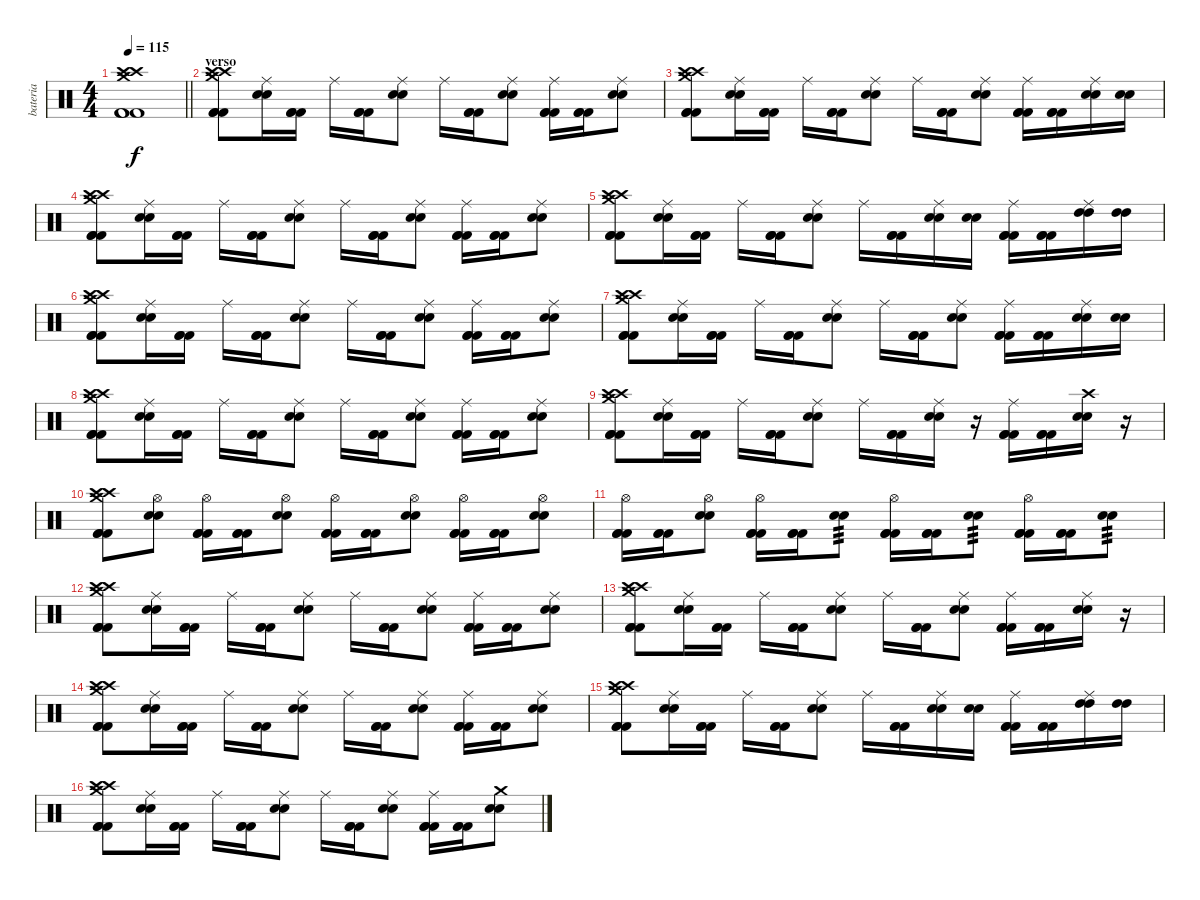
\track ("bateria" "bateria") {instrument percussion}
\staff {score}
\articulation defaults
\ts (4 4)
\tempo 115
\clef neutral
\barLineRight lightlight
\ks c
("Crash high (hit)" "Crash medium (hit)" "Crash high (hit)" "Kick (hit) 2" "Kick (hit) 2" "Kick (hit) 2").1{dy f} |
\section ("" "verso")
("Crash high (hit)" "Crash medium (hit)" "Crash high (hit)" "Kick (hit) 2" "Kick (hit) 2" "Kick (hit) 2").8 ("Ride (middle)" "Electric Snare (hit)" "Electric Snare (hit)").16 ("Kick (hit) 2" "Kick (hit) 2" "Kick (hit) 2").16 "Ride (middle)".16 ("Kick (hit) 2" "Kick (hit) 2" "Kick (hit) 2").16 ("Ride (middle)" "Electric Snare (hit)" "Electric Snare (hit)").8 "Ride (middle)".16 ("Kick (hit) 2" "Kick (hit) 2" "Kick (hit) 2").16 ("Ride (middle)" "Electric Snare (hit)" "Electric Snare (hit)").8 ("Ride (middle)" "Kick (hit) 2" "Kick (hit) 2" "Kick (hit) 2").16 ("Kick (hit) 2" "Kick (hit) 2" "Kick (hit) 2").16 ("Ride (middle)" "Electric Snare (hit)" "Electric Snare (hit)").8 |
("Crash high (hit)" "Crash medium (hit)" "Crash high (hit)" "Kick (hit) 2" "Kick (hit) 2" "Kick (hit) 2").8 ("Ride (middle)" "Electric Snare (hit)" "Electric Snare (hit)").16 ("Kick (hit) 2" "Kick (hit) 2" "Kick (hit) 2").16 "Ride (middle)".16 ("Kick (hit) 2" "Kick (hit) 2" "Kick (hit) 2").16 ("Ride (middle)" "Electric Snare (hit)" "Electric Snare (hit)").8 "Ride (middle)".16 ("Kick (hit) 2" "Kick (hit) 2" "Kick (hit) 2").16 ("Ride (middle)" "Electric Snare (hit)" "Electric Snare (hit)").8 ("Ride (middle)" "Kick (hit) 2" "Kick (hit) 2" "Kick (hit) 2").16 ("Kick (hit) 2" "Kick (hit) 2" "Kick (hit) 2").16 ("Ride (middle)" "Electric Snare (hit)" "Electric Snare (hit)").16 ("Electric Snare (hit)" "Electric Snare (hit)").16 |
("Crash high (hit)" "Crash medium (hit)" "Crash high (hit)" "Kick (hit) 2" "Kick (hit) 2" "Kick (hit) 2").8 ("Ride (middle)" "Electric Snare (hit)" "Electric Snare (hit)").16 ("Kick (hit) 2" "Kick (hit) 2" "Kick (hit) 2").16 "Ride (middle)".16 ("Kick (hit) 2" "Kick (hit) 2" "Kick (hit) 2").16 ("Ride (middle)" "Electric Snare (hit)" "Electric Snare (hit)").8 "Ride (middle)".16 ("Kick (hit) 2" "Kick (hit) 2" "Kick (hit) 2").16 ("Ride (middle)" "Electric Snare (hit)" "Electric Snare (hit)").8 ("Ride (middle)" "Kick (hit) 2" "Kick (hit) 2" "Kick (hit) 2").16 ("Kick (hit) 2" "Kick (hit) 2" "Kick (hit) 2").16 ("Ride (middle)" "Electric Snare (hit)" "Electric Snare (hit)").8 |
("Crash high (hit)" "Crash medium (hit)" "Crash high (hit)" "Kick (hit) 2" "Kick (hit) 2" "Kick (hit) 2").8 ("Ride (middle)" "Electric Snare (hit)" "Electric Snare (hit)").16 ("Kick (hit) 2" "Kick (hit) 2" "Kick (hit) 2").16 "Ride (middle)".16 ("Kick (hit) 2" "Kick (hit) 2" "Kick (hit) 2").16 ("Ride (middle)" "Electric Snare (hit)" "Electric Snare (hit)").8 "Ride (middle)".16 ("Kick (hit) 2" "Kick (hit) 2" "Kick (hit) 2").16 ("Ride (middle)" "Electric Snare (hit)" "Electric Snare (hit)").16 ("Electric Snare (hit)" "Electric Snare (hit)").16 ("Ride (middle)" "Kick (hit) 2" "Kick (hit) 2" "Kick (hit) 2").16 ("Kick (hit) 2" "Kick (hit) 2" "Kick (hit) 2").16 ("Ride (middle)" "High Tom (hit)" "High Tom (hit)").16 ("High Tom (hit)" "High Tom (hit)").16 |
("Crash high (hit)" "Crash medium (hit)" "Crash high (hit)" "Kick (hit) 2" "Kick (hit) 2" "Kick (hit) 2").8 ("Ride (middle)" "Electric Snare (hit)" "Electric Snare (hit)").16 ("Kick (hit) 2" "Kick (hit) 2" "Kick (hit) 2").16 "Ride (middle)".16 ("Kick (hit) 2" "Kick (hit) 2" "Kick (hit) 2").16 ("Ride (middle)" "Electric Snare (hit)" "Electric Snare (hit)").8 "Ride (middle)".16 ("Kick (hit) 2" "Kick (hit) 2" "Kick (hit) 2").16 ("Ride (middle)" "Electric Snare (hit)" "Electric Snare (hit)").8 ("Ride (middle)" "Kick (hit) 2" "Kick (hit) 2" "Kick (hit) 2").16 ("Kick (hit) 2" "Kick (hit) 2" "Kick (hit) 2").16 ("Ride (middle)" "Electric Snare (hit)" "Electric Snare (hit)").8 |
("Crash high (hit)" "Crash medium (hit)" "Crash high (hit)" "Kick (hit) 2" "Kick (hit) 2" "Kick (hit) 2").8 ("Ride (middle)" "Electric Snare (hit)" "Electric Snare (hit)").16 ("Kick (hit) 2" "Kick (hit) 2" "Kick (hit) 2").16 "Ride (middle)".16 ("Kick (hit) 2" "Kick (hit) 2" "Kick (hit) 2").16 ("Ride (middle)" "Electric Snare (hit)" "Electric Snare (hit)").8 "Ride (middle)".16 ("Kick (hit) 2" "Kick (hit) 2" "Kick (hit) 2").16 ("Ride (middle)" "Electric Snare (hit)" "Electric Snare (hit)").8 ("Ride (middle)" "Kick (hit) 2" "Kick (hit) 2" "Kick (hit) 2").16 ("Kick (hit) 2" "Kick (hit) 2" "Kick (hit) 2").16 ("Ride (middle)" "Electric Snare (hit)" "Electric Snare (hit)").16 ("Electric Snare (hit)" "Electric Snare (hit)").16 |
("Crash high (hit)" "Crash medium (hit)" "Crash high (hit)" "Kick (hit) 2" "Kick (hit) 2" "Kick (hit) 2").8 ("Ride (middle)" "Electric Snare (hit)" "Electric Snare (hit)").16 ("Kick (hit) 2" "Kick (hit) 2" "Kick (hit) 2").16 "Ride (middle)".16 ("Kick (hit) 2" "Kick (hit) 2" "Kick (hit) 2").16 ("Ride (middle)" "Electric Snare (hit)" "Electric Snare (hit)").8 "Ride (middle)".16 ("Kick (hit) 2" "Kick (hit) 2" "Kick (hit) 2").16 ("Ride (middle)" "Electric Snare (hit)" "Electric Snare (hit)").8 ("Ride (middle)" "Kick (hit) 2" "Kick (hit) 2" "Kick (hit) 2").16 ("Kick (hit) 2" "Kick (hit) 2" "Kick (hit) 2").16 ("Ride (middle)" "Electric Snare (hit)" "Electric Snare (hit)").8 |
("Crash high (hit)" "Crash medium (hit)" "Crash high (hit)" "Kick (hit) 2" "Kick (hit) 2" "Kick (hit) 2").8 ("Ride (middle)" "Electric Snare (hit)" "Electric Snare (hit)").16 ("Kick (hit) 2" "Kick (hit) 2" "Kick (hit) 2").16 "Ride (middle)".16 ("Kick (hit) 2" "Kick (hit) 2" "Kick (hit) 2").16 ("Ride (middle)" "Electric Snare (hit)" "Electric Snare (hit)").8 "Ride (middle)".16 ("Kick (hit) 2" "Kick (hit) 2" "Kick (hit) 2").16 ("Ride (middle)" "Electric Snare (hit)" "Electric Snare (hit)").16 r.16 ("Ride (middle)" "Kick (hit) 2" "Kick (hit) 2" "Kick (hit) 2").16 ("Kick (hit) 2" "Kick (hit) 2" "Kick (hit) 2").16 ("Crash high (hit)" "Electric Snare (hit)" "Electric Snare (hit)").16 r.16 |
("Crash high (hit)" "Crash medium (hit)" "Crash high (hit)" "Kick (hit) 2" "Kick (hit) 2" "Kick (hit) 2").8 ("Hi-Hat (open)" "Electric Snare (hit)" "Electric Snare (hit)").8 ("Hi-Hat (open)" "Kick (hit) 2" "Kick (hit) 2" "Kick (hit) 2").16 ("Kick (hit) 2" "Kick (hit) 2" "Kick (hit) 2").16 ("Hi-Hat (open)" "Electric Snare (hit)" "Electric Snare (hit)").8 ("Hi-Hat (open)" "Kick (hit) 2" "Kick (hit) 2" "Kick (hit) 2").16 ("Kick (hit) 2" "Kick (hit) 2" "Kick (hit) 2").16 ("Hi-Hat (open)" "Electric Snare (hit)" "Electric Snare (hit)").8 ("Hi-Hat (open)" "Kick (hit) 2" "Kick (hit) 2" "Kick (hit) 2").16 ("Kick (hit) 2" "Kick (hit) 2" "Kick (hit) 2").16 ("Hi-Hat (open)" "Electric Snare (hit)" "Electric Snare (hit)").8 |
("Hi-Hat (open)" "Kick (hit) 2" "Kick (hit) 2" "Kick (hit) 2").16 ("Kick (hit) 2" "Kick (hit) 2" "Kick (hit) 2").16 ("Hi-Hat (open)" "Electric Snare (hit)" "Electric Snare (hit)").8 ("Hi-Hat (open)" "Kick (hit) 2" "Kick (hit) 2" "Kick (hit) 2").16 ("Kick (hit) 2" "Kick (hit) 2" "Kick (hit) 2").16 ("Electric Snare (hit)" "Electric Snare (hit)").8{tp 3} ("Hi-Hat (open)" "Kick (hit) 2" "Kick (hit) 2" "Kick (hit) 2").16 ("Kick (hit) 2" "Kick (hit) 2" "Kick (hit) 2").16 ("Electric Snare (hit)" "Electric Snare (hit)").8{tp 3} ("Hi-Hat (open)" "Kick (hit) 2" "Kick (hit) 2" "Kick (hit) 2").16 ("Kick (hit) 2" "Kick (hit) 2" "Kick (hit) 2").16 ("Electric Snare (hit)" "Electric Snare (hit)").8{tp 3} |
("Crash high (hit)" "Crash medium (hit)" "Crash high (hit)" "Kick (hit) 2" "Kick (hit) 2" "Kick (hit) 2").8 ("Ride (middle)" "Electric Snare (hit)" "Electric Snare (hit)").16 ("Kick (hit) 2" "Kick (hit) 2" "Kick (hit) 2").16 "Ride (middle)".16 ("Kick (hit) 2" "Kick (hit) 2" "Kick (hit) 2").16 ("Ride (middle)" "Electric Snare (hit)" "Electric Snare (hit)").8 "Ride (middle)".16 ("Kick (hit) 2" "Kick (hit) 2" "Kick (hit) 2").16 ("Ride (middle)" "Electric Snare (hit)" "Electric Snare (hit)").8 ("Ride (middle)" "Kick (hit) 2" "Kick (hit) 2" "Kick (hit) 2").16 ("Kick (hit) 2" "Kick (hit) 2" "Kick (hit) 2").16 ("Ride (middle)" "Electric Snare (hit)" "Electric Snare (hit)").8 |
("Crash high (hit)" "Crash medium (hit)" "Crash high (hit)" "Kick (hit) 2" "Kick (hit) 2" "Kick (hit) 2").8 ("Ride (middle)" "Electric Snare (hit)" "Electric Snare (hit)").16 ("Kick (hit) 2" "Kick (hit) 2" "Kick (hit) 2").16 "Ride (middle)".16 ("Kick (hit) 2" "Kick (hit) 2" "Kick (hit) 2").16 ("Ride (middle)" "Electric Snare (hit)" "Electric Snare (hit)").8 "Ride (middle)".16 ("Kick (hit) 2" "Kick (hit) 2" "Kick (hit) 2").16 ("Ride (middle)" "Electric Snare (hit)" "Electric Snare (hit)").8 ("Ride (middle)" "Kick (hit) 2" "Kick (hit) 2" "Kick (hit) 2").16 ("Kick (hit) 2" "Kick (hit) 2" "Kick (hit) 2").16 ("Ride (middle)" "Electric Snare (hit)" "Electric Snare (hit)").16 r.16 |
("Crash high (hit)" "Crash medium (hit)" "Crash high (hit)" "Kick (hit) 2" "Kick (hit) 2" "Kick (hit) 2").8 ("Ride (middle)" "Electric Snare (hit)" "Electric Snare (hit)").16 ("Kick (hit) 2" "Kick (hit) 2" "Kick (hit) 2").16 "Ride (middle)".16 ("Kick (hit) 2" "Kick (hit) 2" "Kick (hit) 2").16 ("Ride (middle)" "Electric Snare (hit)" "Electric Snare (hit)").8 "Ride (middle)".16 ("Kick (hit) 2" "Kick (hit) 2" "Kick (hit) 2").16 ("Ride (middle)" "Electric Snare (hit)" "Electric Snare (hit)").8 ("Ride (middle)" "Kick (hit) 2" "Kick (hit) 2" "Kick (hit) 2").16 ("Kick (hit) 2" "Kick (hit) 2" "Kick (hit) 2").16 ("Ride (middle)" "Electric Snare (hit)" "Electric Snare (hit)").8 |
("Crash high (hit)" "Crash medium (hit)" "Crash high (hit)" "Kick (hit) 2" "Kick (hit) 2" "Kick (hit) 2").8 ("Ride (middle)" "Electric Snare (hit)" "Electric Snare (hit)").16 ("Kick (hit) 2" "Kick (hit) 2" "Kick (hit) 2").16 "Ride (middle)".16 ("Kick (hit) 2" "Kick (hit) 2" "Kick (hit) 2").16 ("Ride (middle)" "Electric Snare (hit)" "Electric Snare (hit)").8 "Ride (middle)".16 ("Kick (hit) 2" "Kick (hit) 2" "Kick (hit) 2").16 ("Ride (middle)" "Electric Snare (hit)" "Electric Snare (hit)").16 ("Electric Snare (hit)" "Electric Snare (hit)").16 ("Ride (middle)" "Kick (hit) 2" "Kick (hit) 2" "Kick (hit) 2").16 ("Kick (hit) 2" "Kick (hit) 2" "Kick (hit) 2").16 ("Ride (middle)" "High Tom (hit)" "High Tom (hit)").16 ("High Tom (hit)" "High Tom (hit)").16 |
("Crash high (hit)" "Crash medium (hit)" "Crash high (hit)" "Kick (hit) 2" "Kick (hit) 2" "Kick (hit) 2").8 ("Ride (middle)" "Electric Snare (hit)" "Electric Snare (hit)").16 ("Kick (hit) 2" "Kick (hit) 2" "Kick (hit) 2").16 "Ride (middle)".16 ("Kick (hit) 2" "Kick (hit) 2" "Kick (hit) 2").16 ("Ride (middle)" "Electric Snare (hit)" "Electric Snare (hit)").8 "Ride (middle)".16 ("Kick (hit) 2" "Kick (hit) 2" "Kick (hit) 2").16 ("Ride (middle)" "Electric Snare (hit)" "Electric Snare (hit)").8 ("Ride (middle)" "Kick (hit) 2" "Kick (hit) 2" "Kick (hit) 2").16 ("Kick (hit) 2" "Kick (hit) 2" "Kick (hit) 2").16 ("Crash medium (hit)" "Electric Snare (hit)" "Electric Snare (hit)").8
